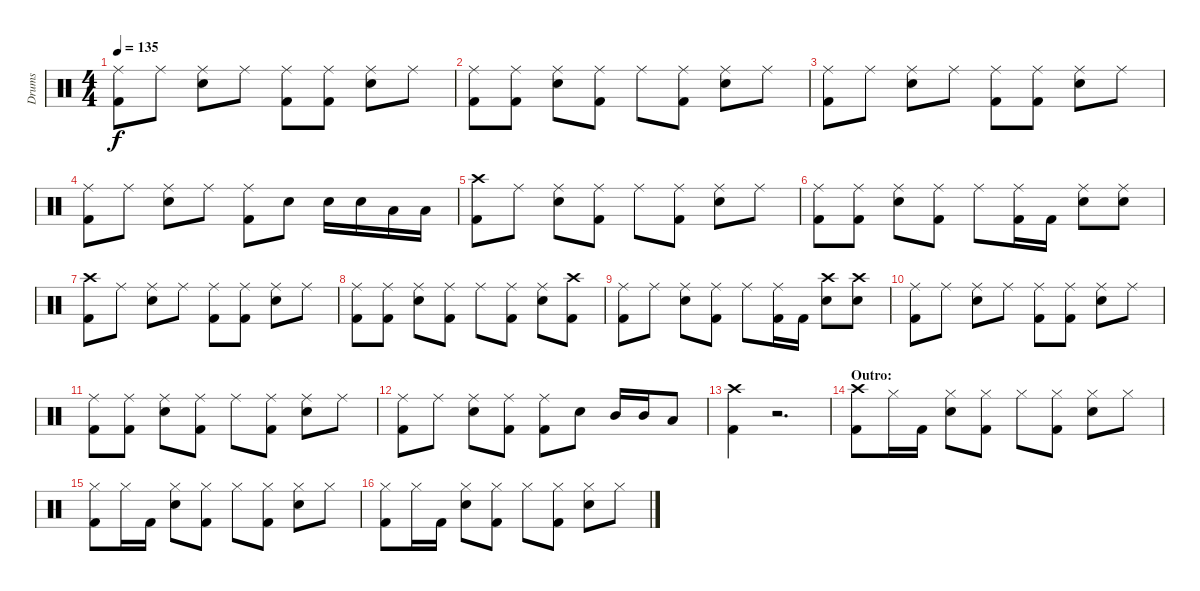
\track ("Drums" "Drums") {instrument percussion}
\staff {score}
\articulation defaults
\ts (4 4)
\tempo 135
\clef neutral
\ks c
("Ride (middle)" "Kick (hit) 2").8{dy f} "Ride (middle)".8 ("Ride (middle)" "Electric Snare (hit)").8 "Ride (middle)".8 ("Ride (middle)" "Kick (hit) 2").8 ("Ride (middle)" "Kick (hit) 2").8 ("Ride (middle)" "Electric Snare (hit)").8 "Ride (middle)".8 |
("Ride (middle)" "Kick (hit) 2").8 ("Ride (middle)" "Kick (hit) 2").8 ("Ride (middle)" "Electric Snare (hit)").8 ("Ride (middle)" "Kick (hit) 2").8 "Ride (middle)".8 ("Ride (middle)" "Kick (hit) 2").8 ("Ride (middle)" "Electric Snare (hit)").8 "Ride (middle)".8 |
("Ride (middle)" "Kick (hit) 2").8 "Ride (middle)".8 ("Ride (middle)" "Electric Snare (hit)").8 "Ride (middle)".8 ("Ride (middle)" "Kick (hit) 2").8 ("Ride (middle)" "Kick (hit) 2").8 ("Ride (middle)" "Electric Snare (hit)").8 "Ride (middle)".8 |
("Ride (middle)" "Kick (hit) 2").8 "Ride (middle)".8 ("Ride (middle)" "Electric Snare (hit)").8 "Ride (middle)".8 ("Ride (middle)" "Kick (hit) 2").8 "Electric Snare (hit)".8 "Electric Snare (hit)".16 "Electric Snare (hit)".16 "Low Tom (hit)".16 "Low Tom (hit)".16 |
("Crash high (hit)" "Kick (hit) 2").8 "Ride (middle)".8 ("Ride (middle)" "Electric Snare (hit)").8 ("Ride (middle)" "Kick (hit) 2").8 "Ride (middle)".8 ("Ride (middle)" "Kick (hit) 2").8 ("Ride (middle)" "Electric Snare (hit)").8 "Ride (middle)".8 |
("Ride (middle)" "Kick (hit) 2").8 ("Ride (middle)" "Kick (hit) 2").8 ("Ride (middle)" "Electric Snare (hit)").8 ("Ride (middle)" "Kick (hit) 2").8 "Ride (middle)".8 ("Ride (middle)" "Kick (hit) 2").16 "Kick (hit) 2".16 ("Ride (middle)" "Electric Snare (hit)").8 ("Ride (middle)" "Electric Snare (hit)").8 |
("Crash high (hit)" "Kick (hit) 2").8 "Ride (middle)".8 ("Ride (middle)" "Electric Snare (hit)").8 "Ride (middle)".8 ("Ride (middle)" "Kick (hit) 2").8 ("Ride (middle)" "Kick (hit) 2").8 ("Ride (middle)" "Electric Snare (hit)").8 "Ride (middle)".8 |
("Ride (middle)" "Kick (hit) 2").8 ("Ride (middle)" "Kick (hit) 2").8 ("Ride (middle)" "Electric Snare (hit)").8 ("Ride (middle)" "Kick (hit) 2").8 "Ride (middle)".8 ("Ride (middle)" "Kick (hit) 2").8 ("Ride (middle)" "Electric Snare (hit)").8 ("Crash high (hit)" "Kick (hit) 2").8 |
("Ride (middle)" "Kick (hit) 2").8 "Ride (middle)".8 ("Ride (middle)" "Electric Snare (hit)").8 ("Ride (middle)" "Kick (hit) 2").8 "Ride (middle)".8 ("Ride (middle)" "Kick (hit) 2").16 "Kick (hit) 2".16 ("Crash high (hit)" "Electric Snare (hit)").8 ("Crash high (hit)" "Electric Snare (hit)").8 |
("Ride (middle)" "Kick (hit) 2").8 "Ride (middle)".8 ("Ride (middle)" "Electric Snare (hit)").8 "Ride (middle)".8 ("Ride (middle)" "Kick (hit) 2").8 ("Ride (middle)" "Kick (hit) 2").8 ("Ride (middle)" "Electric Snare (hit)").8 "Ride (middle)".8 |
("Ride (middle)" "Kick (hit) 2").8 ("Ride (middle)" "Kick (hit) 2").8 ("Ride (middle)" "Electric Snare (hit)").8 ("Ride (middle)" "Kick (hit) 2").8 "Ride (middle)".8 ("Ride (middle)" "Kick (hit) 2").8 ("Ride (middle)" "Electric Snare (hit)").8 "Ride (middle)".8 |
("Ride (middle)" "Kick (hit) 2").8 "Ride (middle)".8 ("Ride (middle)" "Electric Snare (hit)").8 ("Ride (middle)" "Kick (hit) 2").8 ("Ride (middle)" "Kick (hit) 2").8 "Electric Snare (hit)".8 "Mid Tom (hit)".16 "Mid Tom (hit)".16 "Low Tom (hit)".8 |
("Crash high (hit)" "Kick (hit) 2").4 r.2{d} |
\section ("" "Outro:")
("Crash high (hit)" "Kick (hit) 2").8 "Hi-Hat (closed)".16 "Kick (hit) 2".16 ("Hi-Hat (closed)" "Electric Snare (hit)").8 ("Hi-Hat (closed)" "Kick (hit) 2").8 "Hi-Hat (closed)".8 ("Hi-Hat (closed)" "Kick (hit) 2").8 ("Hi-Hat (closed)" "Electric Snare (hit)").8 "Hi-Hat (closed)".8 |
("Hi-Hat (closed)" "Kick (hit) 2").8 "Hi-Hat (closed)".16 "Kick (hit) 2".16 ("Hi-Hat (closed)" "Electric Snare (hit)").8 ("Hi-Hat (closed)" "Kick (hit) 2").8 "Hi-Hat (closed)".8 ("Hi-Hat (closed)" "Kick (hit) 2").8 ("Hi-Hat (closed)" "Electric Snare (hit)").8 "Hi-Hat (closed)".8 |
("Hi-Hat (closed)" "Kick (hit) 2").8 "Hi-Hat (closed)".16 "Kick (hit) 2".16 ("Hi-Hat (closed)" "Electric Snare (hit)").8 ("Hi-Hat (closed)" "Kick (hit) 2").8 "Hi-Hat (closed)".8 ("Hi-Hat (closed)" "Kick (hit) 2").8 ("Hi-Hat (closed)" "Electric Snare (hit)").8 "Hi-Hat (closed)".8
